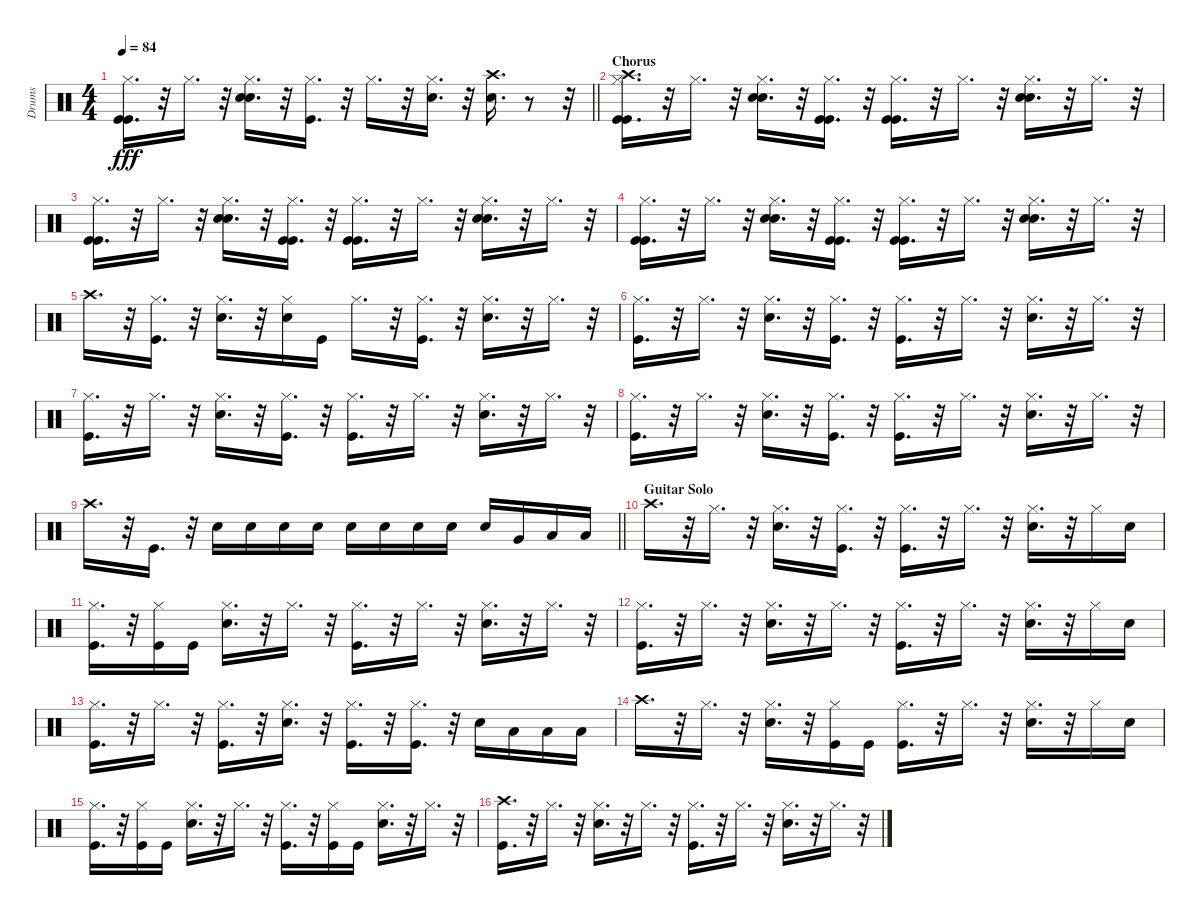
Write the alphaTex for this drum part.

\track ("Drums" "Drums") {instrument percussion}
\staff {score}
\articulation defaults
\ts (4 4)
\tempo 84
\clef neutral
\barLineRight lightlight
\ks c
("Kick (hit)" "Kick (hit)" "Hi-Hat (closed)").16{d dy fff} r.32 "Hi-Hat (closed)".16{d} r.32 ("Snare (hit) 2" "Snare (hit) 2" "Hi-Hat (closed)").16{d} r.32 ("Hi-Hat (closed)" "Kick (hit)").16{d} r.32 "Hi-Hat (closed)".16{d} r.32 ("Snare (hit) 2" "Hi-Hat (closed)").16{d} r.32 ("Crash high (hit)" "Snare (hit) 2").16{d} r.8 r.32 |
\section ("" "Chorus")
("Crash high (hit)" "Kick (hit)" "Kick (hit)" "Hi-Hat (closed)").16{d} r.32 "Hi-Hat (closed)".16{d} r.32 ("Snare (hit) 2" "Snare (hit) 2" "Hi-Hat (closed)").16{d} r.32 ("Kick (hit)" "Kick (hit)" "Hi-Hat (closed)").16{d} r.32 ("Kick (hit)" "Kick (hit)" "Hi-Hat (closed)").16{d} r.32 "Hi-Hat (closed)".16{d} r.32 ("Snare (hit) 2" "Snare (hit) 2" "Hi-Hat (closed)").16{d} r.32 "Hi-Hat (closed)".16{d} r.32 |
("Kick (hit)" "Kick (hit)" "Hi-Hat (closed)").16{d} r.32 "Hi-Hat (closed)".16{d} r.32 ("Snare (hit) 2" "Snare (hit) 2" "Hi-Hat (closed)").16{d} r.32 ("Kick (hit)" "Kick (hit)" "Hi-Hat (closed)").16{d} r.32 ("Kick (hit)" "Kick (hit)" "Hi-Hat (closed)").16{d} r.32 "Hi-Hat (closed)".16{d} r.32 ("Snare (hit) 2" "Snare (hit) 2" "Hi-Hat (closed)").16{d} r.32 "Hi-Hat (closed)".16{d} r.32 |
("Kick (hit)" "Kick (hit)" "Hi-Hat (closed)").16{d} r.32 "Hi-Hat (closed)".16{d} r.32 ("Snare (hit) 2" "Snare (hit) 2" "Hi-Hat (closed)").16{d} r.32 ("Kick (hit)" "Kick (hit)" "Hi-Hat (closed)").16{d} r.32 ("Kick (hit)" "Kick (hit)" "Hi-Hat (closed)").16{d} r.32 "Hi-Hat (closed)".16{d} r.32 ("Snare (hit) 2" "Snare (hit) 2" "Hi-Hat (closed)").16{d} r.32 "Hi-Hat (closed)".16{d} r.32 |
"Crash high (hit)".16{d} r.32 ("Hi-Hat (closed)" "Kick (hit)").16{d} r.32 ("Hi-Hat (closed)" "Snare (hit) 2").16{d} r.32 ("Hi-Hat (closed)" "Snare (hit) 2").16 "Kick (hit)".16 "Hi-Hat (closed)".16{d} r.32 ("Hi-Hat (closed)" "Kick (hit)").16{d} r.32 ("Hi-Hat (closed)" "Snare (hit) 2").16{d} r.32 "Hi-Hat (closed)".16{d} r.32 |
("Hi-Hat (closed)" "Kick (hit)").16{d} r.32 "Hi-Hat (closed)".16{d} r.32 ("Snare (hit) 2" "Hi-Hat (closed)").16{d} r.32 ("Kick (hit)" "Hi-Hat (closed)").16{d} r.32 ("Kick (hit)" "Hi-Hat (closed)").16{d} r.32 "Hi-Hat (closed)".16{d} r.32 ("Hi-Hat (closed)" "Snare (hit) 2").16{d} r.32 "Hi-Hat (closed)".16{d} r.32 |
("Hi-Hat (closed)" "Kick (hit)").16{d} r.32 "Hi-Hat (closed)".16{d} r.32 ("Snare (hit) 2" "Hi-Hat (closed)").16{d} r.32 ("Kick (hit)" "Hi-Hat (closed)").16{d} r.32 ("Kick (hit)" "Hi-Hat (closed)").16{d} r.32 "Hi-Hat (closed)".16{d} r.32 ("Hi-Hat (closed)" "Snare (hit) 2").16{d} r.32 "Hi-Hat (closed)".16{d} r.32 |
("Hi-Hat (closed)" "Kick (hit)").16{d} r.32 "Hi-Hat (closed)".16{d} r.32 ("Snare (hit) 2" "Hi-Hat (closed)").16{d} r.32 ("Kick (hit)" "Hi-Hat (closed)").16{d} r.32 ("Kick (hit)" "Hi-Hat (closed)").16{d} r.32 "Hi-Hat (closed)".16{d} r.32 ("Hi-Hat (closed)" "Snare (hit) 2").16{d} r.32 "Hi-Hat (closed)".16{d} r.32 |
\barLineRight lightlight "Crash high (hit)".16{d}
r.32 "Kick (hit)".16{d} r.32 "Snare (hit) 2".16 "Snare (hit) 2".16 "Snare (hit) 2".16 "Snare (hit) 2".16 "Snare (hit) 2".16 "Snare (hit) 2".16 "Snare (hit) 2".16 "Snare (hit) 2".16 "Snare (hit) 2".16 "Very Low Tom (hit)".16 "Low Floor Tom (hit)".16 "Low Floor Tom (hit)".16 |
\section ("" "Guitar Solo")
"Crash high (hit)".16{d} r.32 "Hi-Hat (closed)".16{d} r.32 ("Snare (hit) 2" "Hi-Hat (closed)").16{d} r.32 ("Kick (hit)" "Hi-Hat (closed)").16{d} r.32 ("Kick (hit)" "Hi-Hat (closed)").16{d} r.32 "Hi-Hat (closed)".16{d} r.32 ("Snare (hit) 2" "Hi-Hat (closed)").16{d} r.32 "Hi-Hat (closed)".16 "Snare (hit) 2".16 |
("Kick (hit)" "Hi-Hat (closed)").16{d} r.32 ("Kick (hit)" "Hi-Hat (closed)").16 "Kick (hit)".16 ("Snare (hit) 2" "Hi-Hat (closed)").16{d} r.32 "Hi-Hat (closed)".16{d} r.32 ("Kick (hit)" "Hi-Hat (closed)").16{d} r.32 "Hi-Hat (closed)".16{d} r.32 ("Snare (hit) 2" "Hi-Hat (closed)").16{d} r.32 "Hi-Hat (closed)".16{d} r.32 |
("Kick (hit)" "Hi-Hat (closed)").16{d} r.32 "Hi-Hat (closed)".16{d} r.32 ("Snare (hit) 2" "Hi-Hat (closed)").16{d} r.32 "Hi-Hat (closed)".16{d} r.32 ("Kick (hit)" "Hi-Hat (closed)").16{d} r.32 "Hi-Hat (closed)".16{d} r.32 ("Snare (hit) 2" "Hi-Hat (closed)").16{d} r.32 "Hi-Hat (closed)".16 "Snare (hit) 2".16 |
("Kick (hit)" "Hi-Hat (closed)").16{d} r.32 "Hi-Hat (closed)".16{d} r.32 ("Kick (hit)" "Hi-Hat (closed)").16{d} r.32 ("Snare (hit) 2" "Hi-Hat (closed)").16{d} r.32 ("Kick (hit)" "Hi-Hat (closed)").16{d} r.32 ("Kick (hit)" "Hi-Hat (closed)").16{d} r.32 "Snare (hit) 2".16 "Low Tom (hit)".16 "Low Floor Tom (hit)".16 "Low Floor Tom (hit)".16 |
"Crash high (hit)".16{d} r.32 "Hi-Hat (closed)".16{d} r.32 ("Snare (hit) 2" "Hi-Hat (closed)").16{d} r.32 ("Kick (hit)" "Hi-Hat (closed)").16 "Kick (hit)".16 ("Kick (hit)" "Hi-Hat (closed)").16{d} r.32 "Hi-Hat (closed)".16{d} r.32 ("Hi-Hat (closed)" "Snare (hit) 2").16{d} r.32 "Hi-Hat (closed)".16 "Snare (hit) 2".16 |
("Kick (hit)" "Hi-Hat (closed)").16{d} r.32 ("Hi-Hat (closed)" "Kick (hit)").16 "Kick (hit)".16 ("Snare (hit) 2" "Hi-Hat (closed)").16{d} r.32 "Hi-Hat (closed)".16{d} r.32 ("Hi-Hat (closed)" "Kick (hit)").16{d} r.32 ("Hi-Hat (closed)" "Kick (hit)").16 "Kick (hit)".16 ("Hi-Hat (closed)" "Snare (hit) 2").16{d} r.32 "Hi-Hat (closed)".16{d} r.32 |
("Crash high (hit)" "Kick (hit)").16{d} r.32 "Hi-Hat (closed)".16{d} r.32 ("Hi-Hat (closed)" "Snare (hit) 2").16{d} r.32 "Hi-Hat (closed)".16{d} r.32 ("Hi-Hat (closed)" "Kick (hit)").16{d} r.32 "Hi-Hat (closed)".16{d} r.32 ("Hi-Hat (closed)" "Snare (hit) 2").16{d} r.32 "Hi-Hat (closed)".16{d} r.32
